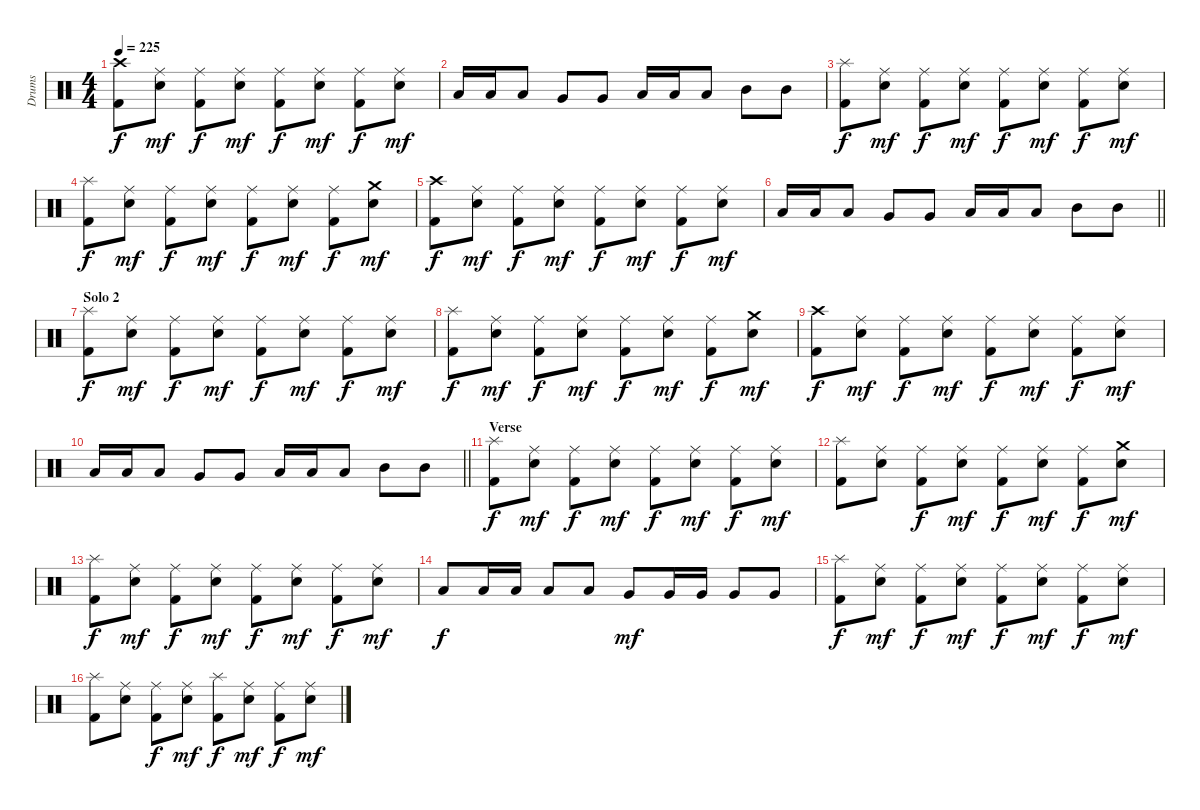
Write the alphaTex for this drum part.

\track ("Drums" "Drums") {instrument percussion}
\staff {score}
\articulation defaults
\ts (4 4)
\tempo 225
\clef neutral
\ks c
("Crash high (hit)" "Kick (hit) 2").8{dy f} ("Ride (middle)" "Snare (hit) 2").8{dy mf} ("Ride (middle)" "Kick (hit) 2").8{dy f} ("Ride (middle)" "Snare (hit) 2").8{dy mf} ("Ride (middle)" "Kick (hit) 2").8{dy f} ("Ride (middle)" "Snare (hit) 2").8{dy mf} ("Ride (middle)" "Kick (hit) 2").8{dy f} ("Ride (middle)" "Snare (hit) 2").8{dy mf} |
"Low Tom (hit)".16 "Low Tom (hit)".16 "Low Tom (hit)".8 "Very Low Tom (hit)".8 "Very Low Tom (hit)".8 "Low Floor Tom (hit)".16 "Low Floor Tom (hit)".16 "Low Floor Tom (hit)".8 "Mid Tom (hit)".8 "Mid Tom (hit)".8 |
("Splash (hit)" "Kick (hit) 2").8{dy f} ("Ride (middle)" "Snare (hit) 2").8{dy mf} ("Ride (middle)" "Kick (hit) 2").8{dy f} ("Ride (middle)" "Snare (hit) 2").8{dy mf} ("Ride (middle)" "Kick (hit) 2").8{dy f} ("Ride (middle)" "Snare (hit) 2").8{dy mf} ("Ride (middle)" "Kick (hit) 2").8{dy f} ("Ride (middle)" "Snare (hit) 2").8{dy mf} |
("Splash (hit)" "Kick (hit) 2").8{dy f} ("Ride (middle)" "Snare (hit) 2").8{dy mf} ("Ride (middle)" "Kick (hit) 2").8{dy f} ("Ride (middle)" "Snare (hit) 2").8{dy mf} ("Ride (middle)" "Kick (hit) 2").8{dy f} ("Ride (middle)" "Snare (hit) 2").8{dy mf} ("Ride (middle)" "Kick (hit) 2").8{dy f} ("Crash medium (hit)" "Snare (hit) 2").8{dy mf} |
("Crash high (hit)" "Kick (hit) 2").8{dy f} ("Ride (middle)" "Snare (hit) 2").8{dy mf} ("Ride (middle)" "Kick (hit) 2").8{dy f} ("Ride (middle)" "Snare (hit) 2").8{dy mf} ("Ride (middle)" "Kick (hit) 2").8{dy f} ("Ride (middle)" "Snare (hit) 2").8{dy mf} ("Ride (middle)" "Kick (hit) 2").8{dy f} ("Ride (middle)" "Snare (hit) 2").8{dy mf} |
\barLineRight lightlight "Low Tom (hit)".16 "Low Tom (hit)".16 "Low Tom (hit)".8 "Very Low Tom (hit)".8 "Very Low Tom (hit)".8 "Low Floor Tom (hit)".16 "Low Floor Tom (hit)".16 "Low Floor Tom (hit)".8 "Mid Tom (hit)".8 "Mid Tom (hit)".8
|
\section ("" "Solo 2")
("Splash (hit)" "Kick (hit) 2").8{dy f} ("Ride (middle)" "Snare (hit) 2").8{dy mf} ("Ride (middle)" "Kick (hit) 2").8{dy f} ("Ride (middle)" "Snare (hit) 2").8{dy mf} ("Ride (middle)" "Kick (hit) 2").8{dy f} ("Ride (middle)" "Snare (hit) 2").8{dy mf} ("Ride (middle)" "Kick (hit) 2").8{dy f} ("Ride (middle)" "Snare (hit) 2").8{dy mf} |
("Splash (hit)" "Kick (hit) 2").8{dy f} ("Ride (middle)" "Snare (hit) 2").8{dy mf} ("Ride (middle)" "Kick (hit) 2").8{dy f} ("Ride (middle)" "Snare (hit) 2").8{dy mf} ("Ride (middle)" "Kick (hit) 2").8{dy f} ("Ride (middle)" "Snare (hit) 2").8{dy mf} ("Ride (middle)" "Kick (hit) 2").8{dy f} ("Crash medium (hit)" "Snare (hit) 2").8{dy mf} |
("Crash high (hit)" "Kick (hit) 2").8{dy f} ("Ride (middle)" "Snare (hit) 2").8{dy mf} ("Ride (middle)" "Kick (hit) 2").8{dy f} ("Ride (middle)" "Snare (hit) 2").8{dy mf} ("Ride (middle)" "Kick (hit) 2").8{dy f} ("Ride (middle)" "Snare (hit) 2").8{dy mf} ("Ride (middle)" "Kick (hit) 2").8{dy f} ("Ride (middle)" "Snare (hit) 2").8{dy mf} |
\barLineRight lightlight "Low Tom (hit)".16 "Low Tom (hit)".16 "Low Tom (hit)".8 "Very Low Tom (hit)".8 "Very Low Tom (hit)".8 "Low Floor Tom (hit)".16 "Low Floor Tom (hit)".16 "Low Floor Tom (hit)".8 "Mid Tom (hit)".8 "Mid Tom (hit)".8
|
\section ("" "Verse")
("Splash (hit)" "Kick (hit) 2").8{dy f} ("Ride (middle)" "Snare (hit) 2").8{dy mf} ("Ride (middle)" "Kick (hit) 2").8{dy f} ("Ride (middle)" "Snare (hit) 2").8{dy mf} ("Ride (middle)" "Kick (hit) 2").8{dy f} ("Ride (middle)" "Snare (hit) 2").8{dy mf} ("Ride (middle)" "Kick (hit) 2").8{dy f} ("Ride (middle)" "Snare (hit) 2").8{dy mf} |
("Splash (hit)" "Kick (hit) 2").8 ("Ride (middle)" "Snare (hit) 2").8 ("Ride (middle)" "Kick (hit) 2").8{dy f} ("Ride (middle)" "Snare (hit) 2").8{dy mf} ("Ride (middle)" "Kick (hit) 2").8{dy f} ("Ride (middle)" "Snare (hit) 2").8{dy mf} ("Ride (middle)" "Kick (hit) 2").8{dy f} ("Crash medium (hit)" "Snare (hit) 2").8{dy mf} |
("Splash (hit)" "Kick (hit) 2").8{dy f} ("Ride (middle)" "Snare (hit) 2").8{dy mf} ("Ride (middle)" "Kick (hit) 2").8{dy f} ("Ride (middle)" "Snare (hit) 2").8{dy mf} ("Ride (middle)" "Kick (hit) 2").8{dy f} ("Ride (middle)" "Snare (hit) 2").8{dy mf} ("Ride (middle)" "Kick (hit) 2").8{dy f} ("Ride (middle)" "Snare (hit) 2").8{dy mf} |
"Low Tom (hit)".8{dy f} "Low Tom (hit)".16 "Low Tom (hit)".16 "Low Tom (hit)".8 "Low Tom (hit)".8 "Very Low Tom (hit)".8{dy mf} "Very Low Tom (hit)".16 "Very Low Tom (hit)".16 "Very Low Tom (hit)".8 "Very Low Tom (hit)".8 |
("Splash (hit)" "Kick (hit) 2").8{dy f} ("Ride (middle)" "Snare (hit) 2").8{dy mf} ("Ride (middle)" "Kick (hit) 2").8{dy f} ("Ride (middle)" "Snare (hit) 2").8{dy mf} ("Ride (middle)" "Kick (hit) 2").8{dy f} ("Ride (middle)" "Snare (hit) 2").8{dy mf} ("Ride (middle)" "Kick (hit) 2").8{dy f} ("Ride (middle)" "Snare (hit) 2").8{dy mf} |
("Splash (hit)" "Kick (hit) 2").8 ("Ride (middle)" "Snare (hit) 2").8 ("Ride (middle)" "Kick (hit) 2").8{dy f} ("Ride (middle)" "Snare (hit) 2").8{dy mf} ("Splash (hit)" "Kick (hit) 2").8{dy f} ("Ride (middle)" "Snare (hit) 2").8{dy mf} ("Ride (middle)" "Kick (hit) 2").8{dy f} ("Ride (middle)" "Snare (hit) 2").8{dy mf}
